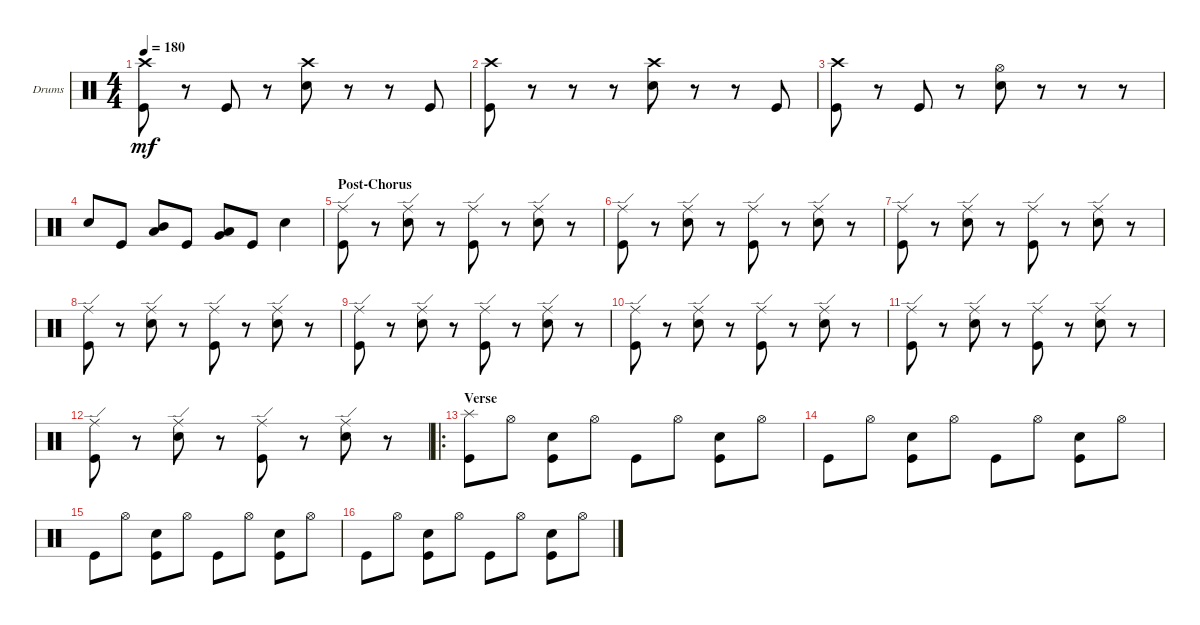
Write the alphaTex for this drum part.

\defaultSystemsLayout 4
\bracketExtendMode groupsimilarinstruments
\firstSystemTrackNameOrientation horizontal
\otherSystemsTrackNameOrientation horizontal
\track ("Drums" "Drums") {instrument percussion}
\staff {score}
\articulation defaults
\ts (4 4)
\tempo 180
\clef neutral
\scale
0.333333
\ks c
("Kick (hit)" "Crash high (hit)").8{dy mf} r.8 "Kick (hit)".8 r.8 ("Snare (hit) 2" "Crash high (hit)").8 r.8 r.8 "Kick (hit)".8 |
("Kick (hit)" "Crash high (hit)").8 r.8 r.8 r.8 ("Snare (hit) 2" "Crash high (hit)").8 r.8 r.8 "Kick (hit)".8 |
("Kick (hit)" "Crash high (hit)").8 r.8 "Kick (hit)".8 r.8 ("Snare (hit) 2" "Hi-Hat (open)").8 r.8 r.8 r.8 |
"Snare (hit) 2".8 "Kick (hit)".8 ("Mid Tom (hit)" "Low Tom (hit)").8 "Kick (hit)".8 ("Low Tom (hit)" "Very Low Tom (hit)").8 "Kick (hit)".8 "Snare (hit) 2".4 |
\section ("" "Post-Chorus")
("Kick (hit)" "Ride (edge)").8 r.8 ("Snare (hit) 2" "Ride (edge)").8 r.8 ("Kick (hit)" "Ride (edge)").8 r.8 ("Snare (hit) 2" "Ride (edge)").8 r.8 |
("Kick (hit)" "Ride (edge)").8 r.8 ("Snare (hit) 2" "Ride (edge)").8 r.8 ("Kick (hit)" "Ride (edge)").8 r.8 ("Snare (hit) 2" "Ride (edge)").8 r.8 |
("Kick (hit)" "Ride (edge)").8 r.8 ("Snare (hit) 2" "Ride (edge)").8 r.8 ("Kick (hit)" "Ride (edge)").8 r.8 ("Snare (hit) 2" "Ride (edge)").8 r.8 |
("Kick (hit)" "Ride (edge)").8 r.8 ("Snare (hit) 2" "Ride (edge)").8 r.8 ("Kick (hit)" "Ride (edge)").8 r.8 ("Snare (hit) 2" "Ride (edge)").8 r.8 |
("Kick (hit)" "Ride (edge)").8 r.8 ("Snare (hit) 2" "Ride (edge)").8 r.8 ("Kick (hit)" "Ride (edge)").8 r.8 ("Snare (hit) 2" "Ride (edge)").8 r.8 |
("Kick (hit)" "Ride (edge)").8 r.8 ("Snare (hit) 2" "Ride (edge)").8 r.8 ("Kick (hit)" "Ride (edge)").8 r.8 ("Snare (hit) 2" "Ride (edge)").8 r.8 |
("Kick (hit)" "Ride (edge)").8 r.8 ("Snare (hit) 2" "Ride (edge)").8 r.8 ("Kick (hit)" "Ride (edge)").8 r.8 ("Snare (hit) 2" "Ride (edge)").8 r.8 |
("Kick (hit)" "Ride (edge)").8 r.8 ("Snare (hit) 2" "Ride (edge)").8 r.8 ("Kick (hit)" "Ride (edge)").8 r.8 ("Snare (hit) 2" "Ride (edge)").8 r.8 |
\ro
\section ("" "Verse")
("Kick (hit)" "Splash (hit)").8 "Hi-Hat (open)".8 ("Snare (hit) 2" "Kick (hit)").8 "Hi-Hat (open)".8 "Kick (hit)".8 "Hi-Hat (open)".8 ("Snare (hit) 2" "Kick (hit)").8 "Hi-Hat (open)".8 |
"Kick (hit)".8 "Hi-Hat (open)".8 ("Snare (hit) 2" "Kick (hit)").8 "Hi-Hat (open)".8 "Kick (hit)".8 "Hi-Hat (open)".8 ("Snare (hit) 2" "Kick (hit)").8 "Hi-Hat (open)".8 |
"Kick (hit)".8 "Hi-Hat (open)".8 ("Snare (hit) 2" "Kick (hit)").8 "Hi-Hat (open)".8 "Kick (hit)".8 "Hi-Hat (open)".8 ("Snare (hit) 2" "Kick (hit)").8 "Hi-Hat (open)".8 |
"Kick (hit)".8 "Hi-Hat (open)".8 ("Snare (hit) 2" "Kick (hit)").8 "Hi-Hat (open)".8 "Kick (hit)".8 "Hi-Hat (open)".8 ("Snare (hit) 2" "Kick (hit)").8 "Hi-Hat (open)".8
